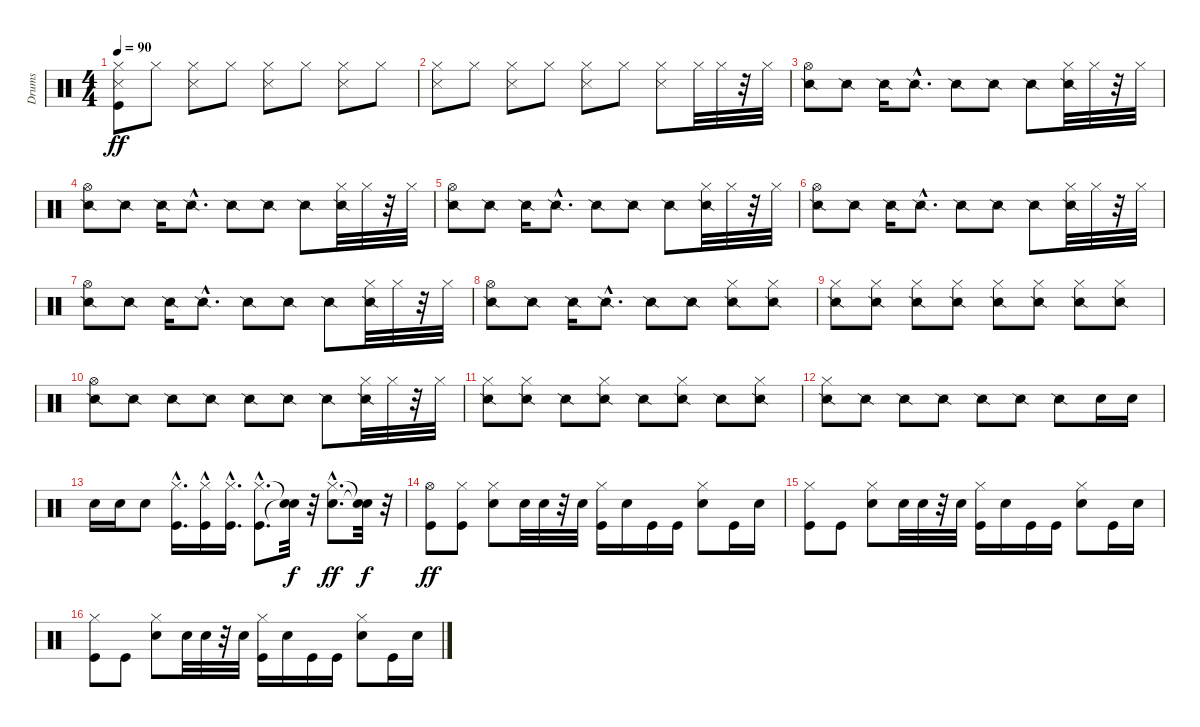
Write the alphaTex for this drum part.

\track ("Drums" "Drums") {instrument percussion}
\staff {score}
\articulation defaults
\ts (4 4)
\tempo 90
\clef neutral
\ks c
("Kick (hit)" "Snare (side stick) 3" "Hi-Hat (closed)").8{dy ff} "Hi-Hat (closed)".8 ("Snare (side stick) 3" "Hi-Hat (closed)").8 "Hi-Hat (closed)".8 ("Snare (side stick) 3" "Hi-Hat (closed)").8 "Hi-Hat (closed)".8 ("Snare (side stick) 3" "Hi-Hat (closed)").8 "Hi-Hat (closed)".8 |
("Snare (side stick) 3" "Hi-Hat (closed)").8 "Hi-Hat (closed)".8 ("Snare (side stick) 3" "Hi-Hat (closed)").8 "Hi-Hat (closed)".8 ("Snare (side stick) 3" "Hi-Hat (closed)").8 "Hi-Hat (closed)".8 ("Snare (side stick) 3" "Hi-Hat (closed)").8 "Hi-Hat (closed)".32 "Hi-Hat (closed)".32 r.32 "Hi-Hat (closed)".32 |
("Snare (side stick) 2" "Hi-Hat (open)").8 "Snare (side stick) 2".8 "Snare (side stick) 2".16 "Snare (side stick) 2"{hac}.8{d} "Snare (side stick) 2".8 "Snare (side stick) 2".8 "Snare (side stick) 2".8 ("Snare (side stick) 2" "Hi-Hat (closed)").32 "Hi-Hat (closed)".32 r.32 "Hi-Hat (closed)".32 |
("Snare (side stick) 2" "Hi-Hat (open)").8 "Snare (side stick) 2".8 "Snare (side stick) 2".16 "Snare (side stick) 2"{hac}.8{d} "Snare (side stick) 2".8 "Snare (side stick) 2".8 "Snare (side stick) 2".8 ("Snare (side stick) 2" "Hi-Hat (closed)").32 "Hi-Hat (closed)".32 r.32 "Hi-Hat (closed)".32 |
("Snare (side stick) 2" "Hi-Hat (open)").8 "Snare (side stick) 2".8 "Snare (side stick) 2".16 "Snare (side stick) 2"{hac}.8{d} "Snare (side stick) 2".8 "Snare (side stick) 2".8 "Snare (side stick) 2".8 ("Snare (side stick) 2" "Hi-Hat (closed)").32 "Hi-Hat (closed)".32 r.32 "Hi-Hat (closed)".32 |
("Snare (side stick) 2" "Hi-Hat (open)").8 "Snare (side stick) 2".8 "Snare (side stick) 2".16 "Snare (side stick) 2"{hac}.8{d} "Snare (side stick) 2".8 "Snare (side stick) 2".8 "Snare (side stick) 2".8 ("Snare (side stick) 2" "Hi-Hat (closed)").32 "Hi-Hat (closed)".32 r.32 "Hi-Hat (closed)".32 |
("Snare (side stick) 2" "Hi-Hat (open)").8 "Snare (side stick) 2".8 "Snare (side stick) 2".16 "Snare (side stick) 2"{hac}.8{d} "Snare (side stick) 2".8 "Snare (side stick) 2".8 "Snare (side stick) 2".8 ("Snare (side stick) 2" "Hi-Hat (closed)").32 "Hi-Hat (closed)".32 r.32 "Hi-Hat (closed)".32 |
("Snare (side stick) 2" "Hi-Hat (open)").8 "Snare (side stick) 2".8 "Snare (side stick) 2".16 "Snare (side stick) 2"{hac}.8{d} "Snare (side stick) 2".8 "Snare (side stick) 2".8 ("Snare (side stick) 2" "Hi-Hat (closed)").8 ("Snare (side stick) 2" "Hi-Hat (closed)").8 |
("Snare (side stick) 2" "Hi-Hat (closed)").8 ("Snare (side stick) 2" "Hi-Hat (closed)").8 ("Snare (side stick) 2" "Hi-Hat (closed)").8 ("Snare (side stick) 2" "Hi-Hat (closed)").8 ("Snare (side stick) 2" "Hi-Hat (closed)").8 ("Snare (side stick) 2" "Hi-Hat (closed)").8 ("Snare (side stick) 2" "Hi-Hat (closed)").8 ("Snare (side stick) 2" "Hi-Hat (closed)").8 |
("Snare (side stick) 2" "Hi-Hat (open)").8 "Snare (side stick) 2".8 "Snare (side stick) 2".8 "Snare (side stick) 2".8 "Snare (side stick) 2".8 "Snare (side stick) 2".8 "Snare (side stick) 2".8 ("Snare (side stick) 2" "Hi-Hat (closed)").32 "Hi-Hat (closed)".32 r.32 "Hi-Hat (closed)".32 |
("Snare (side stick) 2" "Hi-Hat (closed)").8 ("Snare (side stick) 2" "Hi-Hat (closed)").8 "Snare (side stick) 2".8 ("Snare (side stick) 2" "Hi-Hat (closed)").8 "Snare (side stick) 2".8 ("Snare (side stick) 2" "Hi-Hat (closed)").8 "Snare (side stick) 2".8 ("Snare (side stick) 2" "Hi-Hat (closed)").8 |
("Snare (side stick) 2" "Hi-Hat (closed)").8 "Snare (side stick) 2".8 "Snare (side stick) 2".8 "Snare (side stick) 2".8 "Snare (side stick) 2".8 "Snare (side stick) 2".8 "Snare (side stick) 2".8 "Snare (hit) 2".16 "Snare (hit) 2".16 |
"Snare (hit) 2".16 "Snare (hit) 2".16 "Snare (hit) 2".8 ("Kick (hit)"{hac} "Hi-Hat (closed)"{hac}).16{d} ("Kick (hit)"{hac} "Hi-Hat (closed)"{hac}).16 ("Kick (hit)"{hac} "Hi-Hat (closed)"{hac}).16{d} ("Kick (hit)"{hac} "Hi-Hat (closed)"{hac}).8{d} ("Snare (hit)"{t} "Snare (hit)"{t}).32{dy f} r.32 ("Snare (hit) 2"{hac} "Hi-Hat (closed)"{hac}).8{d dy ff} ("Snare (hit)"{t} "Snare (hit)"{t}).32{dy f} r.32 |
("Kick (hit)" "Hi-Hat (open)").8{dy ff} ("Kick (hit)" "Hi-Hat (closed)").8 ("Snare (hit) 2" "Hi-Hat (closed)").8 "Snare (hit) 2".32 "Snare (hit) 2".32 r.32 "Snare (hit) 2".32 ("Kick (hit)" "Hi-Hat (closed)").16 "Snare (hit) 2".16 "Kick (hit)".16 "Kick (hit)".16 ("Snare (hit) 2" "Hi-Hat (closed)").8 "Kick (hit)".16 "Snare (hit) 2".16 |
("Kick (hit)" "Hi-Hat (closed)").8 "Kick (hit)".8 ("Snare (hit) 2" "Hi-Hat (closed)").8 "Snare (hit) 2".32 "Snare (hit) 2".32 r.32 "Snare (hit) 2".32 ("Kick (hit)" "Hi-Hat (closed)").16 "Snare (hit) 2".16 "Kick (hit)".16 "Kick (hit)".16 ("Snare (hit) 2" "Hi-Hat (closed)").8 "Kick (hit)".16 "Snare (hit) 2".16 |
("Kick (hit)" "Hi-Hat (closed)").8 "Kick (hit)".8 ("Snare (hit) 2" "Hi-Hat (closed)").8 "Snare (hit) 2".32 "Snare (hit) 2".32 r.32 "Snare (hit) 2".32 ("Kick (hit)" "Hi-Hat (closed)").16 "Snare (hit) 2".16 "Kick (hit)".16 "Kick (hit)".16 ("Snare (hit) 2" "Hi-Hat (closed)").8 "Kick (hit)".16 "Snare (hit) 2".16
